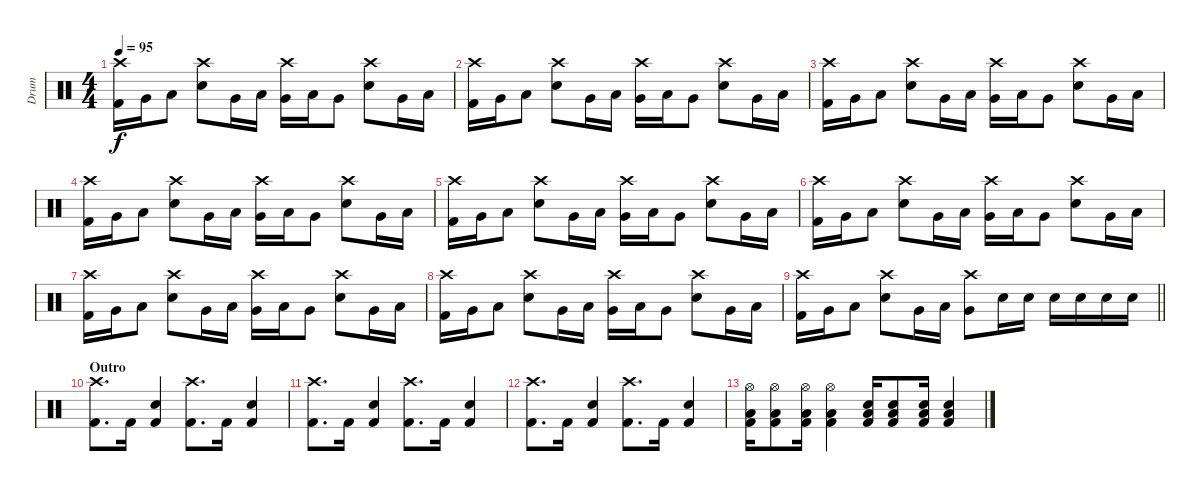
\track ("Drum" "Drum") {instrument percussion}
\staff {score}
\articulation defaults
\ts (4 4)
\tempo 95
\clef neutral
\ks c
("Crash high (hit)" "Kick (hit) 2").16{dy f} "Very Low Tom (hit)".16 "Low Tom (hit)".8 ("Crash high (hit)" "Snare (hit) 2").8 "Very Low Tom (hit)".16 "Low Tom (hit)".16 ("Crash high (hit)" "Very Low Tom (hit)").16 "Low Tom (hit)".16 "Very Low Tom (hit)".8 ("Crash high (hit)" "Snare (hit) 2").8 "Very Low Tom (hit)".16 "Low Tom (hit)".16 |
("Crash high (hit)" "Kick (hit) 2").16 "Very Low Tom (hit)".16 "Low Tom (hit)".8 ("Crash high (hit)" "Snare (hit) 2").8 "Very Low Tom (hit)".16 "Low Tom (hit)".16 ("Crash high (hit)" "Very Low Tom (hit)").16 "Low Tom (hit)".16 "Very Low Tom (hit)".8 ("Crash high (hit)" "Snare (hit) 2").8 "Very Low Tom (hit)".16 "Low Tom (hit)".16 |
("Crash high (hit)" "Kick (hit) 2").16 "Very Low Tom (hit)".16 "Low Tom (hit)".8 ("Crash high (hit)" "Snare (hit) 2").8 "Very Low Tom (hit)".16 "Low Tom (hit)".16 ("Crash high (hit)" "Very Low Tom (hit)").16 "Low Tom (hit)".16 "Very Low Tom (hit)".8 ("Crash high (hit)" "Snare (hit) 2").8 "Very Low Tom (hit)".16 "Low Tom (hit)".16 |
("Crash high (hit)" "Kick (hit) 2").16 "Very Low Tom (hit)".16 "Low Tom (hit)".8 ("Crash high (hit)" "Snare (hit) 2").8 "Very Low Tom (hit)".16 "Low Tom (hit)".16 ("Crash high (hit)" "Very Low Tom (hit)").16 "Low Tom (hit)".16 "Very Low Tom (hit)".8 ("Crash high (hit)" "Snare (hit) 2").8 "Very Low Tom (hit)".16 "Low Tom (hit)".16 |
("Crash high (hit)" "Kick (hit) 2").16 "Very Low Tom (hit)".16 "Low Tom (hit)".8 ("Crash high (hit)" "Snare (hit) 2").8 "Very Low Tom (hit)".16 "Low Tom (hit)".16 ("Crash high (hit)" "Very Low Tom (hit)").16 "Low Tom (hit)".16 "Very Low Tom (hit)".8 ("Crash high (hit)" "Snare (hit) 2").8 "Very Low Tom (hit)".16 "Low Tom (hit)".16 |
("Crash high (hit)" "Kick (hit) 2").16 "Very Low Tom (hit)".16 "Low Tom (hit)".8 ("Crash high (hit)" "Snare (hit) 2").8 "Very Low Tom (hit)".16 "Low Tom (hit)".16 ("Crash high (hit)" "Very Low Tom (hit)").16 "Low Tom (hit)".16 "Very Low Tom (hit)".8 ("Crash high (hit)" "Snare (hit) 2").8 "Very Low Tom (hit)".16 "Low Tom (hit)".16 |
("Crash high (hit)" "Kick (hit) 2").16 "Very Low Tom (hit)".16 "Low Tom (hit)".8 ("Crash high (hit)" "Snare (hit) 2").8 "Very Low Tom (hit)".16 "Low Tom (hit)".16 ("Crash high (hit)" "Very Low Tom (hit)").16 "Low Tom (hit)".16 "Very Low Tom (hit)".8 ("Crash high (hit)" "Snare (hit) 2").8 "Very Low Tom (hit)".16 "Low Tom (hit)".16 |
("Crash high (hit)" "Kick (hit) 2").16 "Very Low Tom (hit)".16 "Low Tom (hit)".8 ("Crash high (hit)" "Snare (hit) 2").8 "Very Low Tom (hit)".16 "Low Tom (hit)".16 ("Crash high (hit)" "Very Low Tom (hit)").16 "Low Tom (hit)".16 "Very Low Tom (hit)".8 ("Crash high (hit)" "Snare (hit) 2").8 "Very Low Tom (hit)".16 "Low Tom (hit)".16 |
\barLineRight lightlight
("Crash high (hit)" "Kick (hit) 2").16 "Very Low Tom (hit)".16 "Low Tom (hit)".8 ("Crash high (hit)" "Snare (hit) 2").8 "Very Low Tom (hit)".16 "Low Tom (hit)".16 ("Crash high (hit)" "Very Low Tom (hit)").8 "Snare (hit) 2".16 "Snare (hit) 2".16 "Snare (hit) 2".16 "Snare (hit) 2".16 "Snare (hit) 2".16 "Snare (hit) 2".16 |
\section ("" "Outro")
("Crash high (hit)" "Kick (hit) 2").8{d} "Kick (hit) 2".16 ("Snare (hit) 2" "Kick (hit) 2").4 ("Crash high (hit)" "Kick (hit) 2").8{d} "Kick (hit) 2".16 ("Snare (hit) 2" "Kick (hit) 2").4 |
("Crash high (hit)" "Kick (hit) 2").8{d} "Kick (hit) 2".16 ("Snare (hit) 2" "Kick (hit) 2").4 ("Crash high (hit)" "Kick (hit) 2").8{d} "Kick (hit) 2".16 ("Snare (hit) 2" "Kick (hit) 2").4 |
("Crash high (hit)" "Kick (hit) 2").8{d} "Kick (hit) 2".16 ("Snare (hit) 2" "Kick (hit) 2").4 ("Crash high (hit)" "Kick (hit) 2").8{d} "Kick (hit) 2".16 ("Snare (hit) 2" "Kick (hit) 2").4 |
("Hi-Hat (open)" "Low Tom (hit)" "Kick (hit) 2").16 ("Hi-Hat (open)" "Low Tom (hit)" "Kick (hit) 2").8 ("Hi-Hat (open)" "Low Tom (hit)" "Kick (hit) 2").16 ("Hi-Hat (open)" "Low Tom (hit)" "Kick (hit) 2").4 ("Low Tom (hit)" "Snare (hit) 2" "Kick (hit) 2").16 ("Low Tom (hit)" "Snare (hit) 2" "Kick (hit) 2").8 ("Low Tom (hit)" "Snare (hit) 2" "Kick (hit) 2").16 ("Low Tom (hit)" "Snare (hit) 2" "Kick (hit) 2").4
